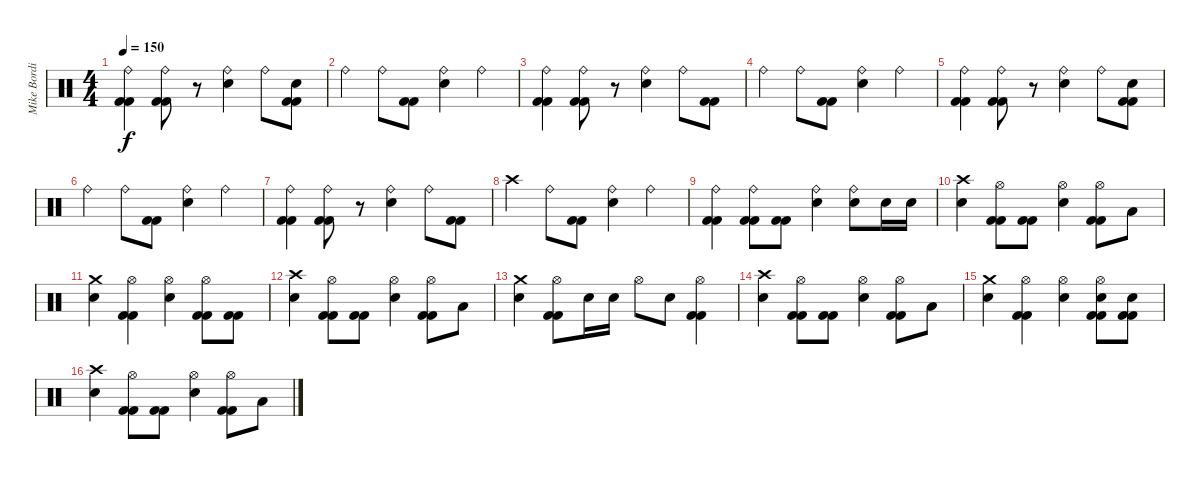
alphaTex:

\track ("Mike Bordin" "Mike Bordi") {instrument percussion}
\staff {score}
\articulation defaults
\ts (4 4)
\tempo 150
\clef neutral
\ks c
("Ride (bell)" "Kick (hit) 2" "Kick (hit) 2").4{dy f} ("Ride (bell)" "Kick (hit) 2" "Kick (hit) 2").8 r.8 ("Ride (bell)" "Electric Snare (hit)").4 "Ride (bell)".8 ("Electric Snare (hit)" "Kick (hit) 2" "Kick (hit) 2").8 |
"Ride (bell)".4 "Ride (bell)".8 ("Kick (hit) 2" "Kick (hit) 2").8 ("Ride (bell)" "Electric Snare (hit)").4 "Ride (bell)".4 |
("Ride (bell)" "Kick (hit) 2" "Kick (hit) 2").4 ("Ride (bell)" "Kick (hit) 2" "Kick (hit) 2").8 r.8 ("Ride (bell)" "Electric Snare (hit)").4 "Ride (bell)".8 ("Kick (hit) 2" "Kick (hit) 2").8 |
"Ride (bell)".4 "Ride (bell)".8 ("Kick (hit) 2" "Kick (hit) 2").8 ("Ride (bell)" "Electric Snare (hit)").4 "Ride (bell)".4 |
("Ride (bell)" "Kick (hit) 2" "Kick (hit) 2").4 ("Ride (bell)" "Kick (hit) 2" "Kick (hit) 2").8 r.8 ("Ride (bell)" "Electric Snare (hit)").4 "Ride (bell)".8 ("Electric Snare (hit)" "Kick (hit) 2" "Kick (hit) 2").8 |
"Ride (bell)".4 "Ride (bell)".8 ("Kick (hit) 2" "Kick (hit) 2").8 ("Ride (bell)" "Electric Snare (hit)").4 "Ride (bell)".4 |
("Ride (bell)" "Kick (hit) 2" "Kick (hit) 2").4 ("Ride (bell)" "Kick (hit) 2" "Kick (hit) 2").8 r.8 ("Ride (bell)" "Electric Snare (hit)").4 "Ride (bell)".8 ("Kick (hit) 2" "Kick (hit) 2").8 |
"Crash high (hit)".4 "Ride (bell)".8 ("Kick (hit) 2" "Kick (hit) 2").8 ("Ride (bell)" "Electric Snare (hit)").4 "Ride (bell)".4 |
("Ride (bell)" "Kick (hit) 2" "Kick (hit) 2").4 ("Ride (bell)" "Kick (hit) 2" "Kick (hit) 2").8 ("Kick (hit) 2" "Kick (hit) 2").8 ("Ride (bell)" "Electric Snare (hit)").4 ("Ride (bell)" "Electric Snare (hit)").8 "Electric Snare (hit)".16 "Electric Snare (hit)".16 |
("Crash high (hit)" "Electric Snare (hit)").4 ("Hi-Hat (open)" "Kick (hit) 2" "Kick (hit) 2").8 ("Kick (hit) 2" "Kick (hit) 2").8 ("Hi-Hat (open)" "Electric Snare (hit)").4 ("Hi-Hat (open)" "Kick (hit) 2" "Kick (hit) 2").8 "Low Tom (hit)".8 |
("Crash medium (hit)" "Electric Snare (hit)").4 ("Hi-Hat (open)" "Kick (hit) 2" "Kick (hit) 2").4 ("Hi-Hat (open)" "Electric Snare (hit)").4 ("Hi-Hat (open)" "Kick (hit) 2" "Kick (hit) 2").8 ("Kick (hit) 2" "Kick (hit) 2").8 |
("Crash high (hit)" "Electric Snare (hit)").4 ("Hi-Hat (open)" "Kick (hit) 2" "Kick (hit) 2").8 ("Kick (hit) 2" "Kick (hit) 2").8 ("Hi-Hat (open)" "Electric Snare (hit)").4 ("Hi-Hat (open)" "Kick (hit) 2" "Kick (hit) 2").8 "Low Tom (hit)".8 |
("Crash medium (hit)" "Electric Snare (hit)").4 ("Hi-Hat (open)" "Kick (hit) 2" "Kick (hit) 2").8 "Electric Snare (hit)".16 "Electric Snare (hit)".16 "Hi-Hat (open)".8 "Electric Snare (hit)".8 ("Hi-Hat (open)" "Kick (hit) 2" "Kick (hit) 2").4 |
("Crash high (hit)" "Electric Snare (hit)").4 ("Hi-Hat (open)" "Kick (hit) 2" "Kick (hit) 2").8 ("Kick (hit) 2" "Kick (hit) 2").8 ("Hi-Hat (open)" "Electric Snare (hit)").4 ("Hi-Hat (open)" "Kick (hit) 2" "Kick (hit) 2").8 "Low Tom (hit)".8 |
("Crash medium (hit)" "Electric Snare (hit)").4 ("Hi-Hat (open)" "Kick (hit) 2" "Kick (hit) 2").4 ("Hi-Hat (open)" "Electric Snare (hit)").4 ("Hi-Hat (open)" "Electric Snare (hit)" "Kick (hit) 2" "Kick (hit) 2").8 ("Electric Snare (hit)" "Kick (hit) 2" "Kick (hit) 2").8 |
("Crash high (hit)" "Electric Snare (hit)").4 ("Hi-Hat (open)" "Kick (hit) 2" "Kick (hit) 2").8 ("Kick (hit) 2" "Kick (hit) 2").8 ("Hi-Hat (open)" "Electric Snare (hit)").4 ("Hi-Hat (open)" "Kick (hit) 2" "Kick (hit) 2").8 "Low Tom (hit)".8
